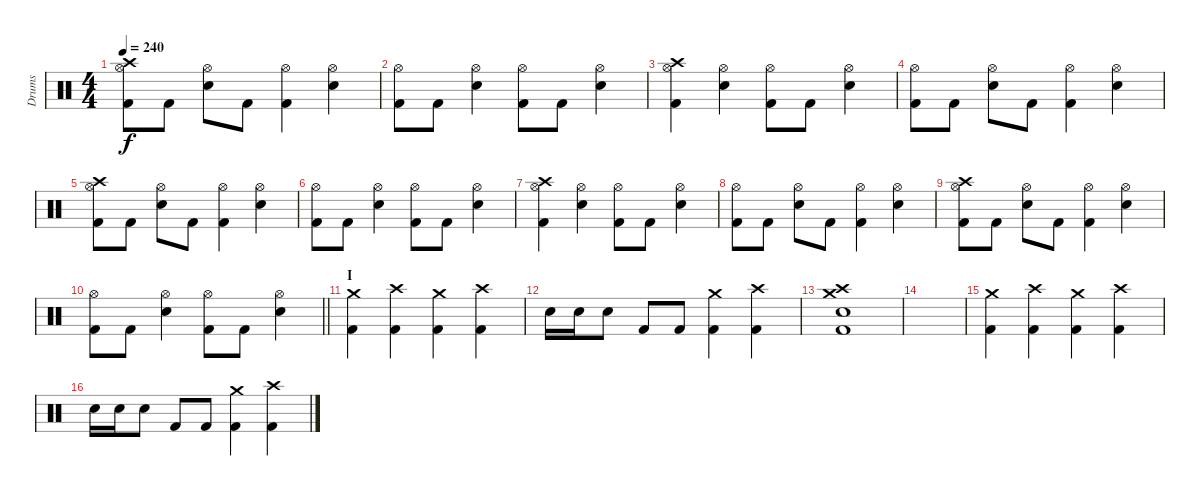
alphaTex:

\track ("Drums" "Drums") {instrument percussion}
\staff {score}
\articulation defaults
\ts (4 4)
\tempo 240
\clef neutral
\ks c
("Kick (hit) 2" "Hi-Hat (open)" "Crash high (hit)").8{dy f} "Kick (hit) 2".8 ("Hi-Hat (open)" "Snare (hit) 2").8 "Kick (hit) 2".8 ("Kick (hit) 2" "Hi-Hat (open)").4 ("Hi-Hat (open)" "Snare (hit) 2").4 |
("Kick (hit) 2" "Hi-Hat (open)").8 "Kick (hit) 2".8 ("Hi-Hat (open)" "Snare (hit) 2").4 ("Kick (hit) 2" "Hi-Hat (open)").8 "Kick (hit) 2".8 ("Hi-Hat (open)" "Snare (hit) 2").4 |
("Kick (hit) 2" "Hi-Hat (open)" "Crash high (hit)").4 ("Hi-Hat (open)" "Snare (hit) 2").4 ("Kick (hit) 2" "Hi-Hat (open)").8 "Kick (hit) 2".8 ("Hi-Hat (open)" "Snare (hit) 2").4 |
("Kick (hit) 2" "Hi-Hat (open)").8 "Kick (hit) 2".8 ("Hi-Hat (open)" "Snare (hit) 2").8 "Kick (hit) 2".8 ("Kick (hit) 2" "Hi-Hat (open)").4 ("Hi-Hat (open)" "Snare (hit) 2").4 |
("Kick (hit) 2" "Hi-Hat (open)" "Crash high (hit)").8 "Kick (hit) 2".8 ("Hi-Hat (open)" "Snare (hit) 2").8 "Kick (hit) 2".8 ("Kick (hit) 2" "Hi-Hat (open)").4 ("Hi-Hat (open)" "Snare (hit) 2").4 |
("Kick (hit) 2" "Hi-Hat (open)").8 "Kick (hit) 2".8 ("Hi-Hat (open)" "Snare (hit) 2").4 ("Kick (hit) 2" "Hi-Hat (open)").8 "Kick (hit) 2".8 ("Hi-Hat (open)" "Snare (hit) 2").4 |
("Kick (hit) 2" "Hi-Hat (open)" "Crash high (hit)").4 ("Hi-Hat (open)" "Snare (hit) 2").4 ("Kick (hit) 2" "Hi-Hat (open)").8 "Kick (hit) 2".8 ("Hi-Hat (open)" "Snare (hit) 2").4 |
("Kick (hit) 2" "Hi-Hat (open)").8 "Kick (hit) 2".8 ("Hi-Hat (open)" "Snare (hit) 2").8 "Kick (hit) 2".8 ("Kick (hit) 2" "Hi-Hat (open)").4 ("Hi-Hat (open)" "Snare (hit) 2").4 |
("Kick (hit) 2" "Hi-Hat (open)" "Crash high (hit)").8 "Kick (hit) 2".8 ("Hi-Hat (open)" "Snare (hit) 2").8 "Kick (hit) 2".8 ("Kick (hit) 2" "Hi-Hat (open)").4 ("Hi-Hat (open)" "Snare (hit) 2").4 |
\barLineRight lightlight
("Kick (hit) 2" "Hi-Hat (open)").8 "Kick (hit) 2".8 ("Hi-Hat (open)" "Snare (hit) 2").4 ("Kick (hit) 2" "Hi-Hat (open)").8 "Kick (hit) 2".8 ("Hi-Hat (open)" "Snare (hit) 2").4 |
\section ("" "I")
("Kick (hit) 2" "Crash medium (hit)").4 ("Kick (hit) 2" "Crash high (hit)").4 ("Kick (hit) 2" "Crash medium (hit)").4 ("Kick (hit) 2" "Crash high (hit)").4 |
"Snare (hit) 2".16 "Snare (hit) 2".16 "Snare (hit) 2".8 "Kick (hit) 2".8 "Kick (hit) 2".8 ("Kick (hit) 2" "Crash medium (hit)").4 ("Kick (hit) 2" "Crash high (hit)").4 |
("Kick (hit) 2" "Snare (hit) 2" "Crash high (hit)" "Crash medium (hit)").1 |
|
("Kick (hit) 2" "Crash medium (hit)").4 ("Kick (hit) 2" "Crash high (hit)").4 ("Kick (hit) 2" "Crash medium (hit)").4 ("Kick (hit) 2" "Crash high (hit)").4 |
"Snare (hit) 2".16 "Snare (hit) 2".16 "Snare (hit) 2".8 "Kick (hit) 2".8 "Kick (hit) 2".8 ("Kick (hit) 2" "Crash medium (hit)").4 ("Kick (hit) 2" "Crash high (hit)").4
